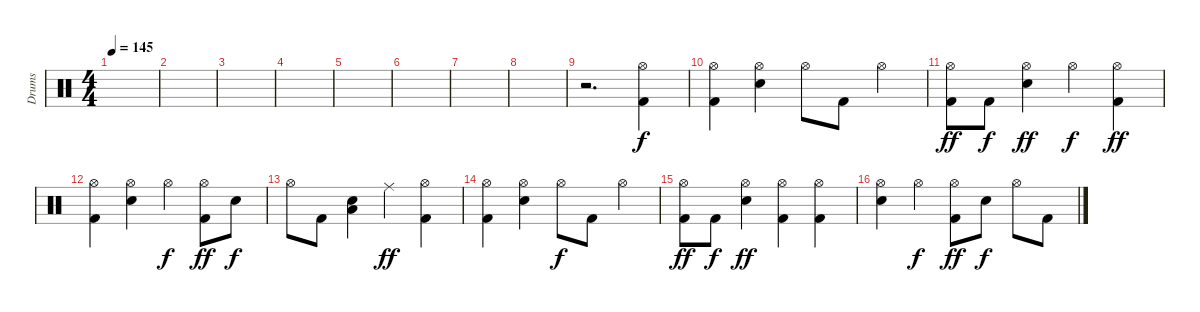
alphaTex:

\track ("Drums" "Drums") {instrument percussion}
\staff {score}
\articulation defaults
\ts (4 4)
\tempo 145
\clef neutral
\ks c
|
|
|
|
|
|
|
|
r.2{d} ("Hi-Hat (open)" "Kick (hit) 2").4 |
("Hi-Hat (open)" "Kick (hit) 2").4 ("Hi-Hat (open)" "Electric Snare (hit)").4 "Hi-Hat (open)".8{dy f} "Kick (hit) 2".8 "Hi-Hat (open)".4 |
("Hi-Hat (open)" "Kick (hit) 2").8{dy ff} "Kick (hit) 2".8{dy f} ("Hi-Hat (open)" "Electric Snare (hit)").4{dy ff} "Hi-Hat (open)".4{dy f} ("Hi-Hat (open)" "Kick (hit) 2").4{dy ff} |
("Hi-Hat (open)" "Kick (hit) 2").4 ("Hi-Hat (open)" "Electric Snare (hit)").4 "Hi-Hat (open)".4{dy f} ("Hi-Hat (open)" "Kick (hit) 2").8{dy ff} "Electric Snare (hit)".8{dy f} |
"Hi-Hat (open)".8 "Kick (hit) 2".8 ("Low Tom (hit)" "Electric Snare (hit)").4 "Ride (middle)".4{dy ff} ("Hi-Hat (open)" "Kick (hit) 2").4 |
("Hi-Hat (open)" "Kick (hit) 2").4 ("Hi-Hat (open)" "Electric Snare (hit)").4 "Hi-Hat (open)".8{dy f} "Kick (hit) 2".8 "Hi-Hat (open)".4 |
("Hi-Hat (open)" "Kick (hit) 2").8{dy ff} "Kick (hit) 2".8{dy f} ("Hi-Hat (open)" "Electric Snare (hit)").4{dy ff} ("Hi-Hat (open)" "Kick (hit) 2").4 ("Hi-Hat (open)" "Kick (hit) 2").4 |
("Hi-Hat (open)" "Electric Snare (hit)").4 "Hi-Hat (open)".4{dy f} ("Hi-Hat (open)" "Kick (hit) 2").8{dy ff} "Electric Snare (hit)".8{dy f} "Hi-Hat (open)".8 "Kick (hit) 2".8
